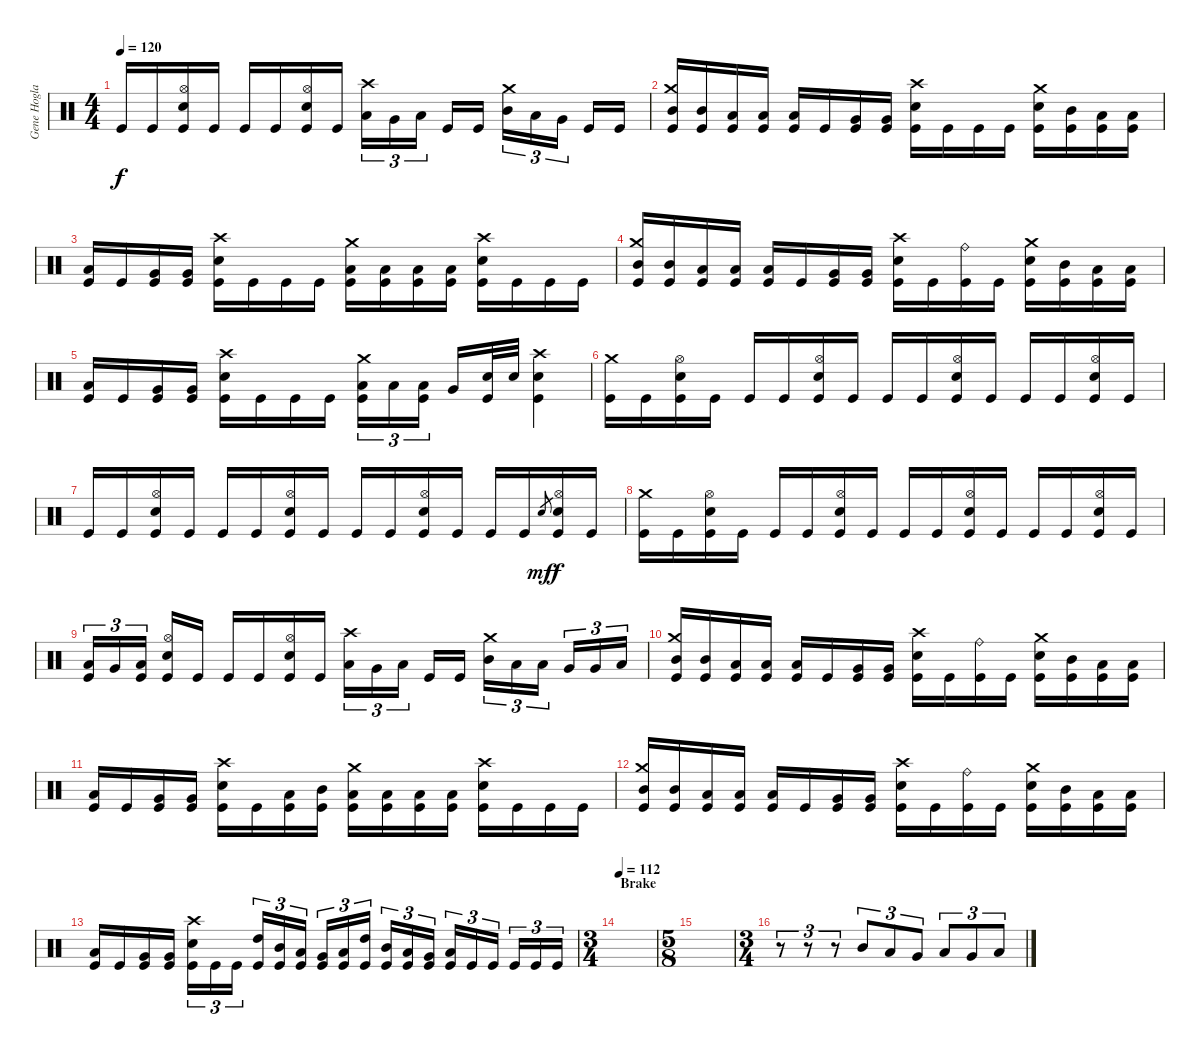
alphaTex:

\track ("Gene Hoglan" "Gene Hogla") {instrument percussion}
\staff {score}
\articulation defaults
\ts (4 4)
\tempo 120
\clef neutral
\ks c "Kick (hit)".16{dy f} "Kick (hit)".16
("Hi-Hat (open)" "Electric Snare (hit)" "Kick (hit)").16 "Kick (hit)".16 "Kick (hit)".16 "Kick (hit)".16 ("Hi-Hat (open)" "Electric Snare (hit)" "Kick (hit)").16 "Kick (hit)".16 ("Crash high (hit)" "Low Tom (hit)").16{tu (3 2)} "Very Low Tom (hit)".16{tu (3 2)} "Low Floor Tom (hit)".16{tu (3 2)} "Kick (hit)".16 "Kick (hit)".16 ("Crash medium (hit)" "Mid Tom (hit)").16{tu (3 2)} "Low Tom (hit)".16{tu (3 2)} "Very Low Tom (hit)".16{tu (3 2)} "Kick (hit)".16 "Kick (hit)".16 |
("Crash medium (hit)" "Mid Tom (hit)" "Kick (hit)").16 ("Mid Tom (hit)" "Kick (hit)").16 ("Low Tom (hit)" "Kick (hit)").16 ("Low Tom (hit)" "Kick (hit)").16 ("Low Tom (hit)" "Kick (hit)").16 "Kick (hit)".16 ("Very Low Tom (hit)" "Kick (hit)").16 ("Very Low Tom (hit)" "Kick (hit)").16 ("Crash high (hit)" "Electric Snare (hit)" "Kick (hit)").16 "Kick (hit)".16 "Kick (hit)".16 "Kick (hit)".16 ("Crash medium (hit)" "Electric Snare (hit)" "Kick (hit)").16 ("Mid Tom (hit)" "Kick (hit)").16 ("Low Tom (hit)" "Kick (hit)").16 ("Low Tom (hit)" "Kick (hit)").16 |
("Low Tom (hit)" "Kick (hit)").16 "Kick (hit)".16 ("Very Low Tom (hit)" "Kick (hit)").16 ("Very Low Tom (hit)" "Kick (hit)").16 ("Crash high (hit)" "Electric Snare (hit)" "Kick (hit)").16 "Kick (hit)".16 "Kick (hit)".16 "Kick (hit)".16 ("Crash medium (hit)" "Low Tom (hit)" "Kick (hit)").16 ("Low Tom (hit)" "Kick (hit)").16 ("Low Tom (hit)" "Kick (hit)").16 ("Low Tom (hit)" "Kick (hit)").16 ("Crash high (hit)" "Electric Snare (hit)" "Kick (hit)").16 "Kick (hit)".16 "Kick (hit)".16 "Kick (hit)".16 |
("Crash medium (hit)" "Mid Tom (hit)" "Kick (hit)").16 ("Mid Tom (hit)" "Kick (hit)").16 ("Low Tom (hit)" "Kick (hit)").16 ("Low Tom (hit)" "Kick (hit)").16 ("Low Tom (hit)" "Kick (hit)").16 "Kick (hit)".16 ("Very Low Tom (hit)" "Kick (hit)").16 ("Very Low Tom (hit)" "Kick (hit)").16 ("Crash high (hit)" "Electric Snare (hit)" "Kick (hit)").16 "Kick (hit)".16 ("Ride (bell)" "Kick (hit)").16 "Kick (hit)".16 ("Crash medium (hit)" "Electric Snare (hit)" "Kick (hit)").16 ("Mid Tom (hit)" "Kick (hit)").16 ("Low Tom (hit)" "Kick (hit)").16 ("Low Tom (hit)" "Kick (hit)").16 |
("Low Tom (hit)" "Kick (hit)").16 "Kick (hit)".16 ("Very Low Tom (hit)" "Kick (hit)").16 ("Very Low Tom (hit)" "Kick (hit)").16 ("Crash high (hit)" "Electric Snare (hit)" "Kick (hit)").16 "Kick (hit)".16 "Kick (hit)".16 "Kick (hit)".16 ("Crash medium (hit)" "Low Tom (hit)" "Kick (hit)").16{tu (3 2)} "Low Tom (hit)".16{tu (3 2)} ("Low Tom (hit)" "Kick (hit)").16{tu (3 2)} "Very Low Tom (hit)".16 ("Electric Snare (hit)" "Kick (hit)").32 "Electric Snare (hit)".32 ("Crash high (hit)" "Electric Snare (hit)" "Kick (hit)").4 |
("Crash medium (hit)" "Kick (hit)").16 "Kick (hit)".16 ("Hi-Hat (open)" "Electric Snare (hit)" "Kick (hit)").16 "Kick (hit)".16 "Kick (hit)".16 "Kick (hit)".16 ("Hi-Hat (open)" "Electric Snare (hit)" "Kick (hit)").16 "Kick (hit)".16 "Kick (hit)".16 "Kick (hit)".16 ("Hi-Hat (open)" "Electric Snare (hit)" "Kick (hit)").16 "Kick (hit)".16 "Kick (hit)".16 "Kick (hit)".16 ("Hi-Hat (open)" "Electric Snare (hit)" "Kick (hit)").16 "Kick (hit)".16 |
"Kick (hit)".16 "Kick (hit)".16 ("Hi-Hat (open)" "Electric Snare (hit)" "Kick (hit)").16 "Kick (hit)".16 "Kick (hit)".16 "Kick (hit)".16 ("Hi-Hat (open)" "Electric Snare (hit)" "Kick (hit)").16 "Kick (hit)".16 "Kick (hit)".16 "Kick (hit)".16 ("Hi-Hat (open)" "Electric Snare (hit)" "Kick (hit)").16 "Kick (hit)".16 "Kick (hit)".16 "Kick (hit)".16 "Electric Snare (hit)".8{gr dy mf} ("Hi-Hat (open)" "Electric Snare (hit)" "Kick (hit)").16{dy f} "Kick (hit)".16 |
("Crash medium (hit)" "Kick (hit)").16 "Kick (hit)".16 ("Hi-Hat (open)" "Electric Snare (hit)" "Kick (hit)").16 "Kick (hit)".16 "Kick (hit)".16 "Kick (hit)".16 ("Hi-Hat (open)" "Electric Snare (hit)" "Kick (hit)").16 "Kick (hit)".16 "Kick (hit)".16 "Kick (hit)".16 ("Hi-Hat (open)" "Electric Snare (hit)" "Kick (hit)").16 "Kick (hit)".16 "Kick (hit)".16 "Kick (hit)".16 ("Hi-Hat (open)" "Electric Snare (hit)" "Kick (hit)").16 "Kick (hit)".16 |
("Low Tom (hit)" "Kick (hit)").16{tu (3 2)} "Very Low Tom (hit)".16{tu (3 2)} ("Low Floor Tom (hit)" "Kick (hit)").16{tu (3 2)} ("Hi-Hat (open)" "Electric Snare (hit)" "Kick (hit)").16 "Kick (hit)".16 "Kick (hit)".16 "Kick (hit)".16 ("Hi-Hat (open)" "Electric Snare (hit)" "Kick (hit)").16 "Kick (hit)".16 ("Crash high (hit)" "Low Tom (hit)").16{tu (3 2)} "Very Low Tom (hit)".16{tu (3 2)} "Low Floor Tom (hit)".16{tu (3 2)} "Kick (hit)".16 "Kick (hit)".16 ("Crash medium (hit)" "Mid Tom (hit)").16{tu (3 2)} "Low Tom (hit)".16{tu (3 2)} "Low Tom (hit)".16{tu (3 2)} "Very Low Tom (hit)".16{tu (3 2)} "Very Low Tom (hit)".16{tu (3 2)} "Low Floor Tom (hit)".16{tu (3 2)} |
("Crash medium (hit)" "Mid Tom (hit)" "Kick (hit)").16 ("Mid Tom (hit)" "Kick (hit)").16 ("Low Tom (hit)" "Kick (hit)").16 ("Low Tom (hit)" "Kick (hit)").16 ("Low Tom (hit)" "Kick (hit)").16 "Kick (hit)".16 ("Very Low Tom (hit)" "Kick (hit)").16 ("Very Low Tom (hit)" "Kick (hit)").16 ("Crash high (hit)" "Electric Snare (hit)" "Kick (hit)").16 "Kick (hit)".16 ("Ride (bell)" "Kick (hit)").16 "Kick (hit)".16 ("Crash medium (hit)" "Electric Snare (hit)" "Kick (hit)").16 ("Mid Tom (hit)" "Kick (hit)").16 ("Low Tom (hit)" "Kick (hit)").16 ("Low Tom (hit)" "Kick (hit)").16 |
("Low Tom (hit)" "Kick (hit)").16 "Kick (hit)".16 ("Very Low Tom (hit)" "Kick (hit)").16 ("Very Low Tom (hit)" "Kick (hit)").16 ("Crash high (hit)" "Electric Snare (hit)" "Kick (hit)").16 "Kick (hit)".16 ("Low Tom (hit)" "Kick (hit)").16 ("Mid Tom (hit)" "Kick (hit)").16 ("Crash medium (hit)" "Low Tom (hit)" "Kick (hit)").16 ("Low Tom (hit)" "Kick (hit)").16 ("Low Tom (hit)" "Kick (hit)").16 ("Low Tom (hit)" "Kick (hit)").16 ("Crash high (hit)" "Electric Snare (hit)" "Kick (hit)").16 "Kick (hit)".16 "Kick (hit)".16 "Kick (hit)".16 |
("Crash medium (hit)" "Mid Tom (hit)" "Kick (hit)").16 ("Mid Tom (hit)" "Kick (hit)").16 ("Low Tom (hit)" "Kick (hit)").16 ("Low Tom (hit)" "Kick (hit)").16 ("Low Tom (hit)" "Kick (hit)").16 "Kick (hit)".16 ("Very Low Tom (hit)" "Kick (hit)").16 ("Very Low Tom (hit)" "Kick (hit)").16 ("Crash high (hit)" "Electric Snare (hit)" "Kick (hit)").16 "Kick (hit)".16 ("Ride (bell)" "Kick (hit)").16 "Kick (hit)".16 ("Crash medium (hit)" "Electric Snare (hit)" "Kick (hit)").16 ("Mid Tom (hit)" "Kick (hit)").16 ("Low Tom (hit)" "Kick (hit)").16 ("Low Tom (hit)" "Kick (hit)").16 |
("Low Tom (hit)" "Kick (hit)").16 "Kick (hit)".16 ("Very Low Tom (hit)" "Kick (hit)").16 ("Very Low Tom (hit)" "Kick (hit)").16 ("Crash high (hit)" "Electric Snare (hit)" "Kick (hit)").16{tu (3 2)} "Kick (hit)".16{tu (3 2)} "Kick (hit)".16{tu (3 2)} ("High Tom (hit)" "Kick (hit)").16{tu (3 2)} ("Mid Tom (hit)" "Kick (hit)").16{tu (3 2)} ("Low Tom (hit)" "Kick (hit)").16{tu (3 2)} ("Very Low Tom (hit)" "Kick (hit)").16{tu (3 2)} ("Low Floor Tom (hit)" "Kick (hit)").16{tu (3 2)} ("High Tom (hit)" "Kick (hit)").16{tu (3 2)} ("Mid Tom (hit)" "Kick (hit)").16{tu (3 2)} ("Low Tom (hit)" "Kick (hit)").16{tu (3 2)} ("Very Low Tom (hit)" "Kick (hit)").16{tu (3 2)} ("Low Floor Tom (hit)" "Kick (hit)").16{tu (3 2)} "Kick (hit)".16{tu (3 2)} "Kick (hit)".16{tu (3 2)} "Kick (hit)".16{tu (3 2)} "Kick (hit)".16{tu (3 2)} "Kick (hit)".16{tu (3 2)} |
\ts (3 4)
\section ("" "Brake")
\tempo 112
|
\ts (5 8)
|
\ts (3 4)
r.8{tu (3 2) volume 16} r.8{tu (3 2)} r.8{tu (3 2)} "Mid Tom (hit)".8{tu (3 2)} "Low Tom (hit)".8{tu (3 2)} "Very Low Tom (hit)".8{tu (3 2)} "Low Floor Tom (hit)".8{tu (3 2)} "Very Low Tom (hit)".8{tu (3 2)} "Low Tom (hit)".8{tu (3 2)}
